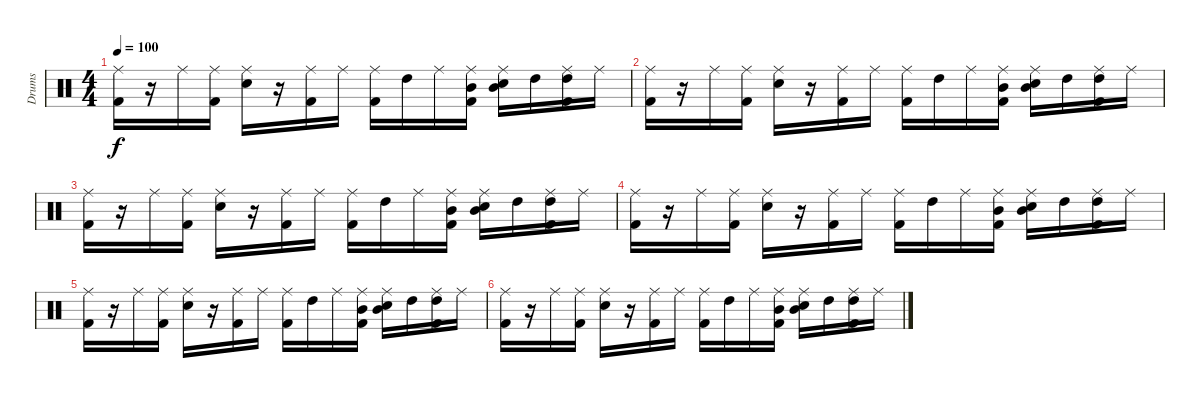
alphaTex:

\track ("Drums" "Drums") {instrument percussion}
\staff {score}
\articulation defaults
\ts (4 4)
\tempo 100
\clef neutral
\ks c
("Ride (middle)" "Kick (hit) 2").16{dy f} r.16 "Ride (middle)".16 ("Ride (middle)" "Kick (hit) 2").16 ("Ride (middle)" "Snare (hit) 2").16 r.16 ("Ride (middle)" "Kick (hit) 2").16 "Ride (middle)".16 ("Ride (middle)" "Kick (hit) 2").16 "High Tom (hit)".16 "Ride (middle)".16 ("Ride (middle)" "Mid Tom (hit)" "Kick (hit) 2").16 ("Ride (middle)" "Mid Tom (hit)" "Snare (hit) 2").16 "High Tom (hit)".16 ("Ride (middle)" "High Tom (hit)" "Kick (hit) 2").16 "Ride (middle)".16 |
("Ride (middle)" "Kick (hit) 2").16 r.16 "Ride (middle)".16 ("Ride (middle)" "Kick (hit) 2").16 ("Ride (middle)" "Snare (hit) 2").16 r.16 ("Ride (middle)" "Kick (hit) 2").16 "Ride (middle)".16 ("Ride (middle)" "Kick (hit) 2").16 "High Tom (hit)".16 "Ride (middle)".16 ("Ride (middle)" "Mid Tom (hit)" "Kick (hit) 2").16 ("Ride (middle)" "Mid Tom (hit)" "Snare (hit) 2").16 "High Tom (hit)".16 ("Ride (middle)" "High Tom (hit)" "Kick (hit) 2").16 "Ride (middle)".16 |
("Ride (middle)" "Kick (hit) 2").16 r.16 "Ride (middle)".16 ("Ride (middle)" "Kick (hit) 2").16 ("Ride (middle)" "Snare (hit) 2").16 r.16 ("Ride (middle)" "Kick (hit) 2").16 "Ride (middle)".16 ("Ride (middle)" "Kick (hit) 2").16 "High Tom (hit)".16 "Ride (middle)".16 ("Ride (middle)" "Mid Tom (hit)" "Kick (hit) 2").16 ("Ride (middle)" "Mid Tom (hit)" "Snare (hit) 2").16 "High Tom (hit)".16 ("Ride (middle)" "High Tom (hit)" "Kick (hit) 2").16 "Ride (middle)".16 |
("Ride (middle)" "Kick (hit) 2").16 r.16 "Ride (middle)".16 ("Ride (middle)" "Kick (hit) 2").16 ("Ride (middle)" "Snare (hit) 2").16 r.16 ("Ride (middle)" "Kick (hit) 2").16 "Ride (middle)".16 ("Ride (middle)" "Kick (hit) 2").16 "High Tom (hit)".16 "Ride (middle)".16 ("Ride (middle)" "Mid Tom (hit)" "Kick (hit) 2").16 ("Ride (middle)" "Mid Tom (hit)" "Snare (hit) 2").16 "High Tom (hit)".16 ("Ride (middle)" "High Tom (hit)" "Kick (hit) 2").16 "Ride (middle)".16 |
("Ride (middle)" "Kick (hit) 2").16 r.16 "Ride (middle)".16 ("Ride (middle)" "Kick (hit) 2").16 ("Ride (middle)" "Snare (hit) 2").16 r.16 ("Ride (middle)" "Kick (hit) 2").16 "Ride (middle)".16 ("Ride (middle)" "Kick (hit) 2").16 "High Tom (hit)".16 "Ride (middle)".16 ("Ride (middle)" "Mid Tom (hit)" "Kick (hit) 2").16 ("Ride (middle)" "Mid Tom (hit)" "Snare (hit) 2").16 "High Tom (hit)".16 ("Ride (middle)" "High Tom (hit)" "Kick (hit) 2").16 "Ride (middle)".16 |
("Ride (middle)" "Kick (hit) 2").16 r.16 "Ride (middle)".16 ("Ride (middle)" "Kick (hit) 2").16 ("Ride (middle)" "Snare (hit) 2").16 r.16 ("Ride (middle)" "Kick (hit) 2").16 "Ride (middle)".16 ("Ride (middle)" "Kick (hit) 2").16 "High Tom (hit)".16 "Ride (middle)".16 ("Ride (middle)" "Mid Tom (hit)" "Kick (hit) 2").16 ("Ride (middle)" "Mid Tom (hit)" "Snare (hit) 2").16 "High Tom (hit)".16 ("Ride (middle)" "High Tom (hit)" "Kick (hit) 2").16 "Ride (middle)".16
